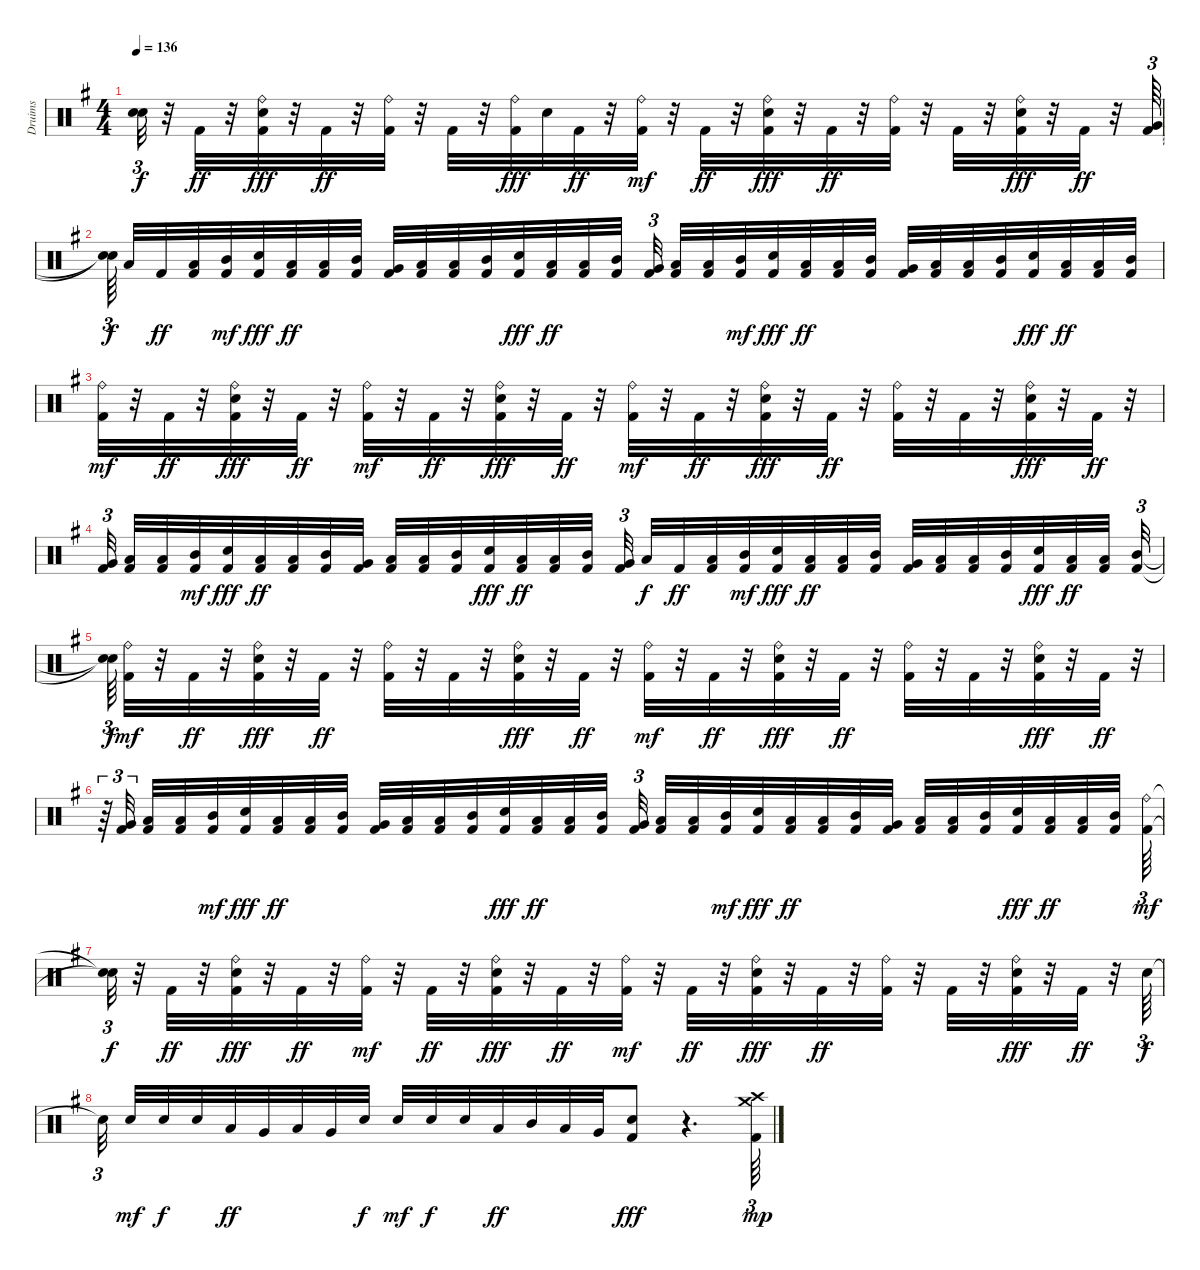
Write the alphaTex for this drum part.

\track ("Druims" "Druims") {instrument percussion}
\staff {score}
\articulation defaults
\ts (4 4)
\tempo 136
\clef neutral
\ks eminor
("Snare (hit)"{t} "Snare (hit)"{t}).32{tu (3 2) dy f} r.32 "Kick (hit) 2".32{dy ff} r.32 ("Kick (hit) 2" "Ride (bell)" "Snare (hit) 2").32{dy fff} r.32 "Kick (hit) 2".32{dy ff} r.32 ("Ride (bell)" "Kick (hit) 2").32 r.32 "Kick (hit) 2".32 r.32 ("Kick (hit) 2" "Ride (bell)").32{dy fff} "Snare (hit) 2".32 "Kick (hit) 2".32{dy ff} r.32 ("Kick (hit) 2" "Ride (bell)").32{dy mf} r.32 "Kick (hit) 2".32{dy ff} r.32 ("Kick (hit) 2" "Snare (hit) 2" "Ride (bell)").32{dy fff} r.32 "Kick (hit) 2".32{dy ff} r.32 ("Ride (bell)" "Kick (hit) 2").32 r.32 "Kick (hit) 2".32 r.32 ("Kick (hit) 2" "Ride (bell)" "Snare (hit) 2").32{dy fff} r.32 "Kick (hit) 2".32{dy ff} r.32 ("Kick (hit) 2" "Very Low Tom (hit)").64{tu (3 2)} |
("Snare (hit)"{t} "Snare (hit)"{t}).64{tu (3 2) dy f beam splitsecondary} "Low Tom (hit)".32 "Kick (hit) 2".32{dy ff} ("Low Floor Tom (hit)" "Kick (hit) 2").32 ("Kick (hit) 2" "Mid Tom (hit)").32{dy mf} ("Kick (hit) 2" "Snare (hit) 2").32{dy fff} ("Kick (hit) 2" "Low Tom (hit)").32{dy ff} ("Low Floor Tom (hit)" "Kick (hit) 2").32 ("Kick (hit) 2" "Mid Tom (hit)").32 ("Kick (hit) 2" "Very Low Tom (hit)").32 ("Kick (hit) 2" "Low Tom (hit)").32 ("Kick (hit) 2" "Low Floor Tom (hit)").32 ("Kick (hit) 2" "Mid Tom (hit)").32 ("Kick (hit) 2" "Snare (hit) 2").32{dy fff} ("Kick (hit) 2" "Low Tom (hit)").32{dy ff} ("Kick (hit) 2" "Low Floor Tom (hit)").32 ("Kick (hit) 2" "Mid Tom (hit)").32 ("Kick (hit) 2" "Very Low Tom (hit)").32{tu (3 2) beam splitsecondary} ("Low Tom (hit)" "Kick (hit) 2").32 ("Low Floor Tom (hit)" "Kick (hit) 2").32 ("Kick (hit) 2" "Mid Tom (hit)").32{dy mf} ("Kick (hit) 2" "Snare (hit) 2").32{dy fff} ("Kick (hit) 2" "Low Tom (hit)").32{dy ff} ("Low Floor Tom (hit)" "Kick (hit) 2").32 ("Kick (hit) 2" "Mid Tom (hit)").32 ("Kick (hit) 2" "Very Low Tom (hit)").32 ("Kick (hit) 2" "Low Tom (hit)").32 ("Kick (hit) 2" "Low Floor Tom (hit)").32 ("Kick (hit) 2" "Mid Tom (hit)").32 ("Kick (hit) 2" "Snare (hit) 2").32{dy fff} ("Kick (hit) 2" "Low Tom (hit)").32{dy ff} ("Kick (hit) 2" "Low Floor Tom (hit)").32 ("Kick (hit) 2" "Mid Tom (hit)").32 |
("Kick (hit) 2" "Ride (bell)").32{dy mf} r.32 "Kick (hit) 2".32{dy ff} r.32 ("Kick (hit) 2" "Snare (hit) 2" "Ride (bell)").32{dy fff} r.32 "Kick (hit) 2".32{dy ff} r.32 ("Kick (hit) 2" "Ride (bell)").32{dy mf} r.32 "Kick (hit) 2".32{dy ff} r.32 ("Kick (hit) 2" "Snare (hit) 2" "Ride (bell)").32{dy fff} r.32 "Kick (hit) 2".32{dy ff} r.32 ("Kick (hit) 2" "Ride (bell)").32{dy mf} r.32 "Kick (hit) 2".32{dy ff} r.32 ("Snare (hit) 2" "Kick (hit) 2" "Ride (bell)").32{dy fff} r.32 "Kick (hit) 2".32{dy ff} r.32 ("Ride (bell)" "Kick (hit) 2").32 r.32 "Kick (hit) 2".32 r.32 ("Kick (hit) 2" "Snare (hit) 2" "Ride (bell)").32{dy fff} r.32 "Kick (hit) 2".32{dy ff} r.32 |
("Kick (hit) 2" "Very Low Tom (hit)").32{tu (3 2) beam splitsecondary} ("Low Tom (hit)" "Kick (hit) 2").32 ("Low Floor Tom (hit)" "Kick (hit) 2").32 ("Kick (hit) 2" "Mid Tom (hit)").32{dy mf} ("Kick (hit) 2" "Snare (hit) 2").32{dy fff} ("Kick (hit) 2" "Low Tom (hit)").32{dy ff} ("Low Floor Tom (hit)" "Kick (hit) 2").32 ("Kick (hit) 2" "Mid Tom (hit)").32 ("Kick (hit) 2" "Very Low Tom (hit)").32 ("Kick (hit) 2" "Low Tom (hit)").32 ("Kick (hit) 2" "Low Floor Tom (hit)").32 ("Kick (hit) 2" "Mid Tom (hit)").32 ("Kick (hit) 2" "Snare (hit) 2").32{dy fff} ("Kick (hit) 2" "Low Tom (hit)").32{dy ff} ("Kick (hit) 2" "Low Floor Tom (hit)").32 ("Kick (hit) 2" "Mid Tom (hit)").32{beam splitsecondary} ("Kick (hit) 2" "Very Low Tom (hit)").32{tu (3 2)} "Low Tom (hit)".32{dy f} "Kick (hit) 2".32{dy ff} ("Low Floor Tom (hit)" "Kick (hit) 2").32 ("Kick (hit) 2" "Mid Tom (hit)").32{dy mf} ("Kick (hit) 2" "Snare (hit) 2").32{dy fff} ("Kick (hit) 2" "Low Tom (hit)").32{dy ff} ("Low Floor Tom (hit)" "Kick (hit) 2").32 ("Kick (hit) 2" "Mid Tom (hit)").32 ("Kick (hit) 2" "Very Low Tom (hit)").32 ("Kick (hit) 2" "Low Tom (hit)").32 ("Kick (hit) 2" "Low Floor Tom (hit)").32 ("Kick (hit) 2" "Mid Tom (hit)").32 ("Kick (hit) 2" "Snare (hit) 2").32{dy fff} ("Kick (hit) 2" "Low Tom (hit)").32{dy ff} ("Kick (hit) 2" "Low Floor Tom (hit)").32{beam splitsecondary} ("Kick (hit) 2" "Mid Tom (hit)").32{tu (3 2)} |
("Snare (hit)"{t} "Snare (hit)"{t}).64{tu (3 2) dy f} ("Kick (hit) 2" "Ride (bell)").32{dy mf} r.32 "Kick (hit) 2".32{dy ff} r.32 ("Kick (hit) 2" "Ride (bell)" "Snare (hit) 2").32{dy fff} r.32 "Kick (hit) 2".32{dy ff} r.32 ("Ride (bell)" "Kick (hit) 2").32 r.32 "Kick (hit) 2".32 r.32 ("Kick (hit) 2" "Ride (bell)" "Snare (hit) 2").32{dy fff} r.32 "Kick (hit) 2".32{dy ff} r.32 ("Kick (hit) 2" "Ride (bell)").32{dy mf} r.32 "Kick (hit) 2".32{dy ff} r.32 ("Kick (hit) 2" "Snare (hit) 2" "Ride (bell)").32{dy fff} r.32 "Kick (hit) 2".32{dy ff} r.32 ("Ride (bell)" "Kick (hit) 2").32 r.32 "Kick (hit) 2".32 r.32 ("Kick (hit) 2" "Ride (bell)" "Snare (hit) 2").32{dy fff} r.32 "Kick (hit) 2".32{dy ff} r.32{tu (3 2)} |
r.64{tu (3 2)} ("Kick (hit) 2" "Very Low Tom (hit)").32{tu (3 2) beam splitsecondary} ("Low Tom (hit)" "Kick (hit) 2").32 ("Low Floor Tom (hit)" "Kick (hit) 2").32 ("Kick (hit) 2" "Mid Tom (hit)").32{dy mf} ("Kick (hit) 2" "Snare (hit) 2").32{dy fff} ("Kick (hit) 2" "Low Tom (hit)").32{dy ff} ("Low Floor Tom (hit)" "Kick (hit) 2").32 ("Kick (hit) 2" "Mid Tom (hit)").32 ("Kick (hit) 2" "Very Low Tom (hit)").32 ("Kick (hit) 2" "Low Tom (hit)").32 ("Kick (hit) 2" "Low Floor Tom (hit)").32 ("Kick (hit) 2" "Mid Tom (hit)").32 ("Kick (hit) 2" "Snare (hit) 2").32{dy fff} ("Kick (hit) 2" "Low Tom (hit)").32{dy ff} ("Kick (hit) 2" "Low Floor Tom (hit)").32 ("Kick (hit) 2" "Mid Tom (hit)").32 ("Kick (hit) 2" "Very Low Tom (hit)").32{tu (3 2) beam splitsecondary} ("Low Tom (hit)" "Kick (hit) 2").32 ("Low Floor Tom (hit)" "Kick (hit) 2").32 ("Kick (hit) 2" "Mid Tom (hit)").32{dy mf} ("Kick (hit) 2" "Snare (hit) 2").32{dy fff} ("Kick (hit) 2" "Low Tom (hit)").32{dy ff} ("Low Floor Tom (hit)" "Kick (hit) 2").32 ("Kick (hit) 2" "Mid Tom (hit)").32 ("Kick (hit) 2" "Very Low Tom (hit)").32 ("Kick (hit) 2" "Low Tom (hit)").32 ("Kick (hit) 2" "Low Floor Tom (hit)").32 ("Kick (hit) 2" "Mid Tom (hit)").32 ("Kick (hit) 2" "Snare (hit) 2").32{dy fff} ("Kick (hit) 2" "Low Tom (hit)").32{dy ff} ("Kick (hit) 2" "Low Floor Tom (hit)").32 ("Kick (hit) 2" "Mid Tom (hit)").32{beam splitsecondary} ("Kick (hit) 2" "Ride (bell)").64{tu (3 2) dy mf} |
("Snare (hit)"{t} "Snare (hit)"{t}).32{tu (3 2) dy f} r.32 "Kick (hit) 2".32{dy ff} r.32 ("Kick (hit) 2" "Snare (hit) 2" "Ride (bell)").32{dy fff} r.32 "Kick (hit) 2".32{dy ff} r.32 ("Kick (hit) 2" "Ride (bell)").32{dy mf} r.32 "Kick (hit) 2".32{dy ff} r.32 ("Kick (hit) 2" "Snare (hit) 2" "Ride (bell)").32{dy fff} r.32 "Kick (hit) 2".32{dy ff} r.32 ("Kick (hit) 2" "Ride (bell)").32{dy mf} r.32 "Kick (hit) 2".32{dy ff} r.32 ("Snare (hit) 2" "Kick (hit) 2" "Ride (bell)").32{dy fff} r.32 "Kick (hit) 2".32{dy ff} r.32 ("Ride (bell)" "Kick (hit) 2").32 r.32 "Kick (hit) 2".32 r.32 ("Kick (hit) 2" "Snare (hit) 2" "Ride (bell)").32{dy fff} r.32 "Kick (hit) 2".32{dy ff} r.32 "Snare (hit) 2".64{tu (3 2) dy f} |
"Snare (hit)"{t}.32{tu (3 2) beam splitsecondary} "Snare (hit) 2".32{dy mf} "Snare (hit) 2".32{dy f} "Snare (hit) 2".32 "Low Floor Tom (hit)".32{dy ff} "Very Low Tom (hit)".32 "Low Floor Tom (hit)".32 "Very Low Tom (hit)".32 "Snare (hit) 2".32{dy f} "Snare (hit) 2".32{dy mf} "Snare (hit) 2".32{dy f} "Snare (hit) 2".32 "Low Tom (hit)".32{dy ff} "Mid Tom (hit)".32 "Low Floor Tom (hit)".32 "Very Low Tom (hit)".32 ("Kick (hit) 2" "Snare (hit) 2").8{dy fff} r.4{d} ("Kick (hit) 2" "Crash high (hit)" "Crash medium (hit)").64{tu (3 2) dy mp}
